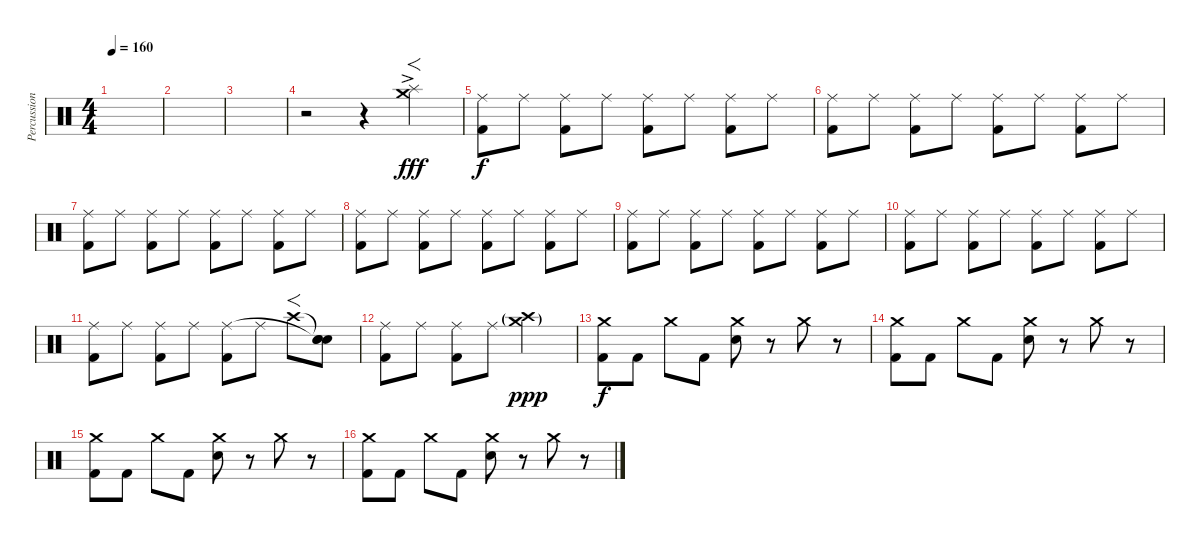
\track ("Percussion" "Percussion") {instrument percussion}
\staff {score}
\articulation defaults
\ts (4 4)
\tempo 160
\clef neutral
\ks c
|
|
|
r.2 r.4 ("Crash medium (hit)"{ac} "Splash (hit)"{ac}).4{f dy fff} |
("Kick (hit) 2" "Ride (middle)").8{dy f} "Ride (middle)".8 ("Kick (hit) 2" "Ride (middle)").8 "Ride (middle)".8 ("Kick (hit) 2" "Ride (middle)").8 "Ride (middle)".8 ("Kick (hit) 2" "Ride (middle)").8 "Ride (middle)".8 |
("Kick (hit) 2" "Ride (middle)").8 "Ride (middle)".8 ("Kick (hit) 2" "Ride (middle)").8 "Ride (middle)".8 ("Kick (hit) 2" "Ride (middle)").8 "Ride (middle)".8 ("Kick (hit) 2" "Ride (middle)").8 "Ride (middle)".8 |
("Kick (hit) 2" "Ride (middle)").8 "Ride (middle)".8 ("Kick (hit) 2" "Ride (middle)").8 "Ride (middle)".8 ("Kick (hit) 2" "Ride (middle)").8 "Ride (middle)".8 ("Kick (hit) 2" "Ride (middle)").8 "Ride (middle)".8 |
("Kick (hit) 2" "Ride (middle)").8 "Ride (middle)".8 ("Kick (hit) 2" "Ride (middle)").8 "Ride (middle)".8 ("Kick (hit) 2" "Ride (middle)").8 "Ride (middle)".8 ("Kick (hit) 2" "Ride (middle)").8 "Ride (middle)".8 |
("Kick (hit) 2" "Ride (middle)").8 "Ride (middle)".8 ("Kick (hit) 2" "Ride (middle)").8 "Ride (middle)".8 ("Kick (hit) 2" "Ride (middle)").8 "Ride (middle)".8 ("Kick (hit) 2" "Ride (middle)").8 "Ride (middle)".8 |
("Kick (hit) 2" "Ride (middle)").8 "Ride (middle)".8 ("Kick (hit) 2" "Ride (middle)").8 "Ride (middle)".8 ("Kick (hit) 2" "Ride (middle)").8 "Ride (middle)".8 ("Kick (hit) 2" "Ride (middle)").8 "Ride (middle)".8 |
("Kick (hit) 2" "Ride (middle)").8 "Ride (middle)".8 ("Kick (hit) 2" "Ride (middle)").8 "Ride (middle)".8 ("Kick (hit) 2" "Ride (middle)").8 "Ride (middle)".8 "Crash high (hit)".8{f} ("Snare (hit)"{t} "Snare (hit)"{t} "Snare (hit)").8 |
("Kick (hit) 2" "Ride (middle)").8 "Ride (middle)".8 ("Kick (hit) 2" "Ride (middle)").8 "Ride (middle)".8 ("Crash high (hit)"{g} "Crash medium (hit)"{g}).2{dy ppp} |
("Kick (hit) 2" "Crash medium (hit)").8{dy f} "Kick (hit) 2".8 "Crash medium (hit)".8 "Kick (hit) 2".8 ("Electric Snare (hit)" "Crash medium (hit)").8 r.8 "Crash medium (hit)".8 r.8 |
("Kick (hit) 2" "Crash medium (hit)").8 "Kick (hit) 2".8 "Crash medium (hit)".8 "Kick (hit) 2".8 ("Electric Snare (hit)" "Crash medium (hit)").8 r.8 "Crash medium (hit)".8 r.8 |
("Kick (hit) 2" "Crash medium (hit)").8 "Kick (hit) 2".8 "Crash medium (hit)".8 "Kick (hit) 2".8 ("Electric Snare (hit)" "Crash medium (hit)").8 r.8 "Crash medium (hit)".8 r.8 |
("Kick (hit) 2" "Crash medium (hit)").8 "Kick (hit) 2".8 "Crash medium (hit)".8 "Kick (hit) 2".8 ("Electric Snare (hit)" "Crash medium (hit)").8 r.8 "Crash medium (hit)".8 r.8
